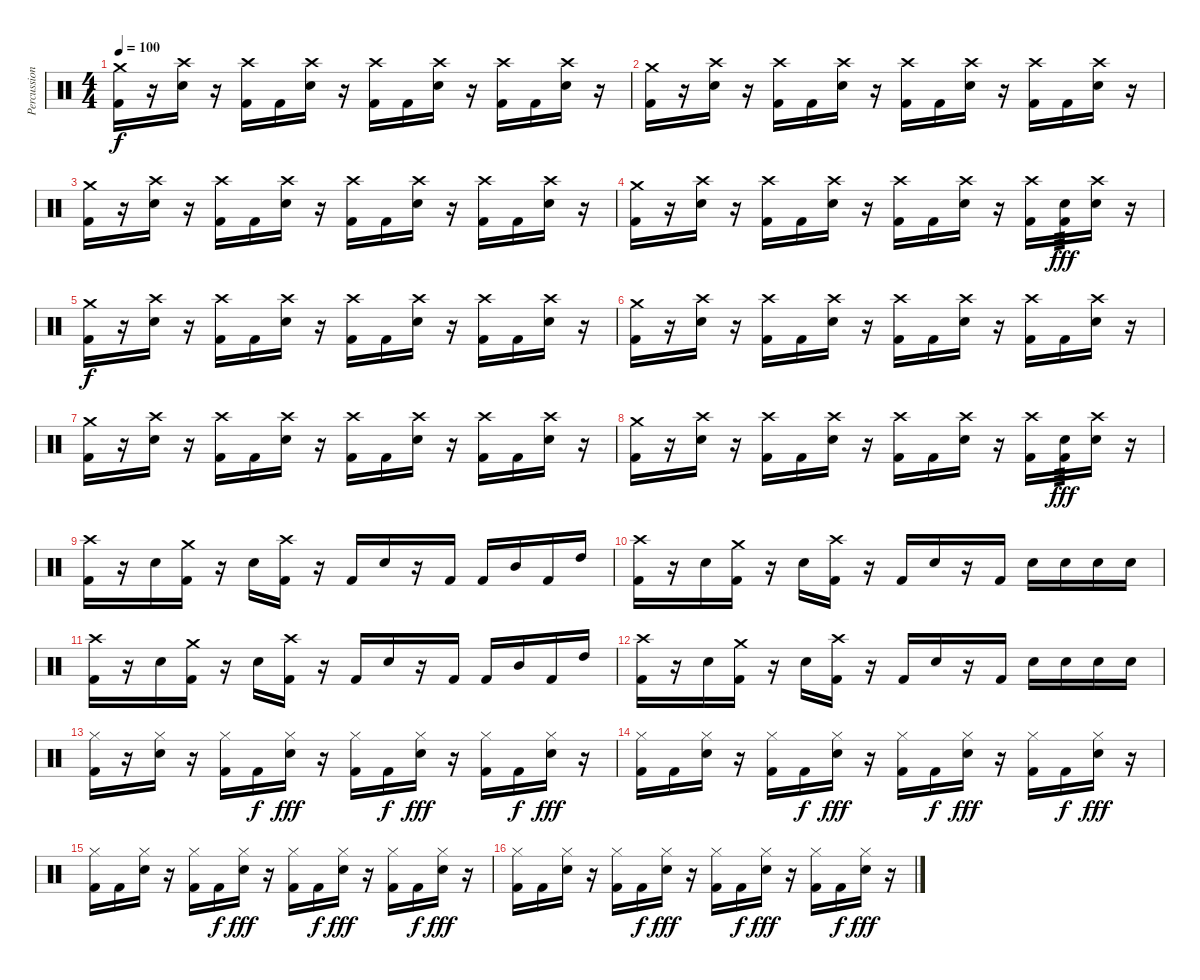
\track ("Percussion" "Percussion") {instrument percussion}
\staff {score}
\articulation defaults
\ts (4 4)
\tempo 100
\clef neutral
\ks c
("Crash medium (hit)" "Kick (hit) 2").16{dy f} r.16 ("Crash high (hit)" "Electric Snare (hit)").16 r.16 ("Crash high (hit)" "Kick (hit) 2").16 "Kick (hit) 2".16 ("Crash high (hit)" "Electric Snare (hit)").16 r.16 ("Crash high (hit)" "Kick (hit) 2").16 "Kick (hit) 2".16 ("Crash high (hit)" "Electric Snare (hit)").16 r.16 ("Crash high (hit)" "Kick (hit) 2").16 "Kick (hit) 2".16 ("Crash high (hit)" "Electric Snare (hit)").16 r.16 |
("Crash medium (hit)" "Kick (hit) 2").16 r.16 ("Crash high (hit)" "Electric Snare (hit)").16 r.16 ("Crash high (hit)" "Kick (hit) 2").16 "Kick (hit) 2".16 ("Crash high (hit)" "Electric Snare (hit)").16 r.16 ("Crash high (hit)" "Kick (hit) 2").16 "Kick (hit) 2".16 ("Crash high (hit)" "Electric Snare (hit)").16 r.16 ("Crash high (hit)" "Kick (hit) 2").16 "Kick (hit) 2".16 ("Crash high (hit)" "Electric Snare (hit)").16 r.16 |
("Crash medium (hit)" "Kick (hit) 2").16 r.16 ("Crash high (hit)" "Electric Snare (hit)").16 r.16 ("Crash high (hit)" "Kick (hit) 2").16 "Kick (hit) 2".16 ("Crash high (hit)" "Electric Snare (hit)").16 r.16 ("Crash high (hit)" "Kick (hit) 2").16 "Kick (hit) 2".16 ("Crash high (hit)" "Electric Snare (hit)").16 r.16 ("Crash high (hit)" "Kick (hit) 2").16 "Kick (hit) 2".16 ("Crash high (hit)" "Electric Snare (hit)").16 r.16 |
("Crash medium (hit)" "Kick (hit) 2").16 r.16 ("Crash high (hit)" "Electric Snare (hit)").16 r.16 ("Crash high (hit)" "Kick (hit) 2").16 "Kick (hit) 2".16 ("Crash high (hit)" "Electric Snare (hit)").16 r.16 ("Crash high (hit)" "Kick (hit) 2").16 "Kick (hit) 2".16 ("Crash high (hit)" "Electric Snare (hit)").16 r.16 ("Crash high (hit)" "Kick (hit) 2").16 ("Electric Snare (hit)" "Kick (hit) 2").16{tp 3 dy fff} ("Crash high (hit)" "Electric Snare (hit)").16 r.16 |
("Crash medium (hit)" "Kick (hit) 2").16{dy f} r.16 ("Crash high (hit)" "Electric Snare (hit)").16 r.16 ("Crash high (hit)" "Kick (hit) 2").16 "Kick (hit) 2".16 ("Crash high (hit)" "Electric Snare (hit)").16 r.16 ("Crash high (hit)" "Kick (hit) 2").16 "Kick (hit) 2".16 ("Crash high (hit)" "Electric Snare (hit)").16 r.16 ("Crash high (hit)" "Kick (hit) 2").16 "Kick (hit) 2".16 ("Crash high (hit)" "Electric Snare (hit)").16 r.16 |
("Crash medium (hit)" "Kick (hit) 2").16 r.16 ("Crash high (hit)" "Electric Snare (hit)").16 r.16 ("Crash high (hit)" "Kick (hit) 2").16 "Kick (hit) 2".16 ("Crash high (hit)" "Electric Snare (hit)").16 r.16 ("Crash high (hit)" "Kick (hit) 2").16 "Kick (hit) 2".16 ("Crash high (hit)" "Electric Snare (hit)").16 r.16 ("Crash high (hit)" "Kick (hit) 2").16 "Kick (hit) 2".16 ("Crash high (hit)" "Electric Snare (hit)").16 r.16 |
("Crash medium (hit)" "Kick (hit) 2").16 r.16 ("Crash high (hit)" "Electric Snare (hit)").16 r.16 ("Crash high (hit)" "Kick (hit) 2").16 "Kick (hit) 2".16 ("Crash high (hit)" "Electric Snare (hit)").16 r.16 ("Crash high (hit)" "Kick (hit) 2").16 "Kick (hit) 2".16 ("Crash high (hit)" "Electric Snare (hit)").16 r.16 ("Crash high (hit)" "Kick (hit) 2").16 "Kick (hit) 2".16 ("Crash high (hit)" "Electric Snare (hit)").16 r.16 |
("Crash medium (hit)" "Kick (hit) 2").16 r.16 ("Crash high (hit)" "Electric Snare (hit)").16 r.16 ("Crash high (hit)" "Kick (hit) 2").16 "Kick (hit) 2".16 ("Crash high (hit)" "Electric Snare (hit)").16 r.16 ("Crash high (hit)" "Kick (hit) 2").16 "Kick (hit) 2".16 ("Crash high (hit)" "Electric Snare (hit)").16 r.16 ("Crash high (hit)" "Kick (hit) 2").16 ("Electric Snare (hit)" "Kick (hit) 2").16{tp 3 dy fff} ("Crash high (hit)" "Electric Snare (hit)").16 r.16 |
("Crash high (hit)" "Kick (hit) 2").16 r.16 "Electric Snare (hit)".16 ("Crash medium (hit)" "Kick (hit) 2").16 r.16 "Electric Snare (hit)".16 ("Crash high (hit)" "Kick (hit) 2").16 r.16 "Kick (hit) 2".16 "Electric Snare (hit)".16 r.16 "Kick (hit) 2".16 "Kick (hit) 2".16 "Mid Tom (hit)".16 "Kick (hit) 2".16 "High Tom (hit)".16 |
("Crash high (hit)" "Kick (hit) 2").16 r.16 "Electric Snare (hit)".16 ("Crash medium (hit)" "Kick (hit) 2").16 r.16 "Electric Snare (hit)".16 ("Crash high (hit)" "Kick (hit) 2").16 r.16 "Kick (hit) 2".16 "Electric Snare (hit)".16 r.16 "Kick (hit) 2".16 "Electric Snare (hit)".16 "Electric Snare (hit)".16 "Electric Snare (hit)".16 "Electric Snare (hit)".16 |
("Crash high (hit)" "Kick (hit) 2").16 r.16 "Electric Snare (hit)".16 ("Crash medium (hit)" "Kick (hit) 2").16 r.16 "Electric Snare (hit)".16 ("Crash high (hit)" "Kick (hit) 2").16 r.16 "Kick (hit) 2".16 "Electric Snare (hit)".16 r.16 "Kick (hit) 2".16 "Kick (hit) 2".16 "Mid Tom (hit)".16 "Kick (hit) 2".16 "High Tom (hit)".16 |
("Crash high (hit)" "Kick (hit) 2").16 r.16 "Electric Snare (hit)".16 ("Crash medium (hit)" "Kick (hit) 2").16 r.16 "Electric Snare (hit)".16 ("Crash high (hit)" "Kick (hit) 2").16 r.16 "Kick (hit) 2".16 "Electric Snare (hit)".16 r.16 "Kick (hit) 2".16 "Electric Snare (hit)".16 "Electric Snare (hit)".16 "Electric Snare (hit)".16 "Electric Snare (hit)".16 |
("Hi-Hat (closed)" "Kick (hit) 2").16 r.16 ("Hi-Hat (closed)" "Electric Snare (hit)").16 r.16 ("Hi-Hat (closed)" "Kick (hit) 2").16 "Kick (hit) 2".16{dy f} ("Hi-Hat (closed)" "Electric Snare (hit)").16{dy fff} r.16 ("Hi-Hat (closed)" "Kick (hit) 2").16 "Kick (hit) 2".16{dy f} ("Hi-Hat (closed)" "Electric Snare (hit)").16{dy fff} r.16 ("Hi-Hat (closed)" "Kick (hit) 2").16 "Kick (hit) 2".16{dy f} ("Hi-Hat (closed)" "Electric Snare (hit)").16{dy fff} r.16 |
("Hi-Hat (closed)" "Kick (hit) 2").16 "Kick (hit) 2".16 ("Hi-Hat (closed)" "Electric Snare (hit)").16 r.16 ("Hi-Hat (closed)" "Kick (hit) 2").16 "Kick (hit) 2".16{dy f} ("Hi-Hat (closed)" "Electric Snare (hit)").16{dy fff} r.16 ("Hi-Hat (closed)" "Kick (hit) 2").16 "Kick (hit) 2".16{dy f} ("Hi-Hat (closed)" "Electric Snare (hit)").16{dy fff} r.16 ("Hi-Hat (closed)" "Kick (hit) 2").16 "Kick (hit) 2".16{dy f} ("Hi-Hat (closed)" "Electric Snare (hit)").16{dy fff} r.16 |
("Hi-Hat (closed)" "Kick (hit) 2").16 "Kick (hit) 2".16 ("Hi-Hat (closed)" "Electric Snare (hit)").16 r.16 ("Hi-Hat (closed)" "Kick (hit) 2").16 "Kick (hit) 2".16{dy f} ("Hi-Hat (closed)" "Electric Snare (hit)").16{dy fff} r.16 ("Hi-Hat (closed)" "Kick (hit) 2").16 "Kick (hit) 2".16{dy f} ("Hi-Hat (closed)" "Electric Snare (hit)").16{dy fff} r.16 ("Hi-Hat (closed)" "Kick (hit) 2").16 "Kick (hit) 2".16{dy f} ("Hi-Hat (closed)" "Electric Snare (hit)").16{dy fff} r.16 |
("Hi-Hat (closed)" "Kick (hit) 2").16 "Kick (hit) 2".16 ("Hi-Hat (closed)" "Electric Snare (hit)").16 r.16 ("Hi-Hat (closed)" "Kick (hit) 2").16 "Kick (hit) 2".16{dy f} ("Hi-Hat (closed)" "Electric Snare (hit)").16{dy fff} r.16 ("Hi-Hat (closed)" "Kick (hit) 2").16 "Kick (hit) 2".16{dy f} ("Hi-Hat (closed)" "Electric Snare (hit)").16{dy fff} r.16 ("Hi-Hat (closed)" "Kick (hit) 2").16 "Kick (hit) 2".16{dy f} ("Hi-Hat (closed)" "Electric Snare (hit)").16{dy fff} r.16
